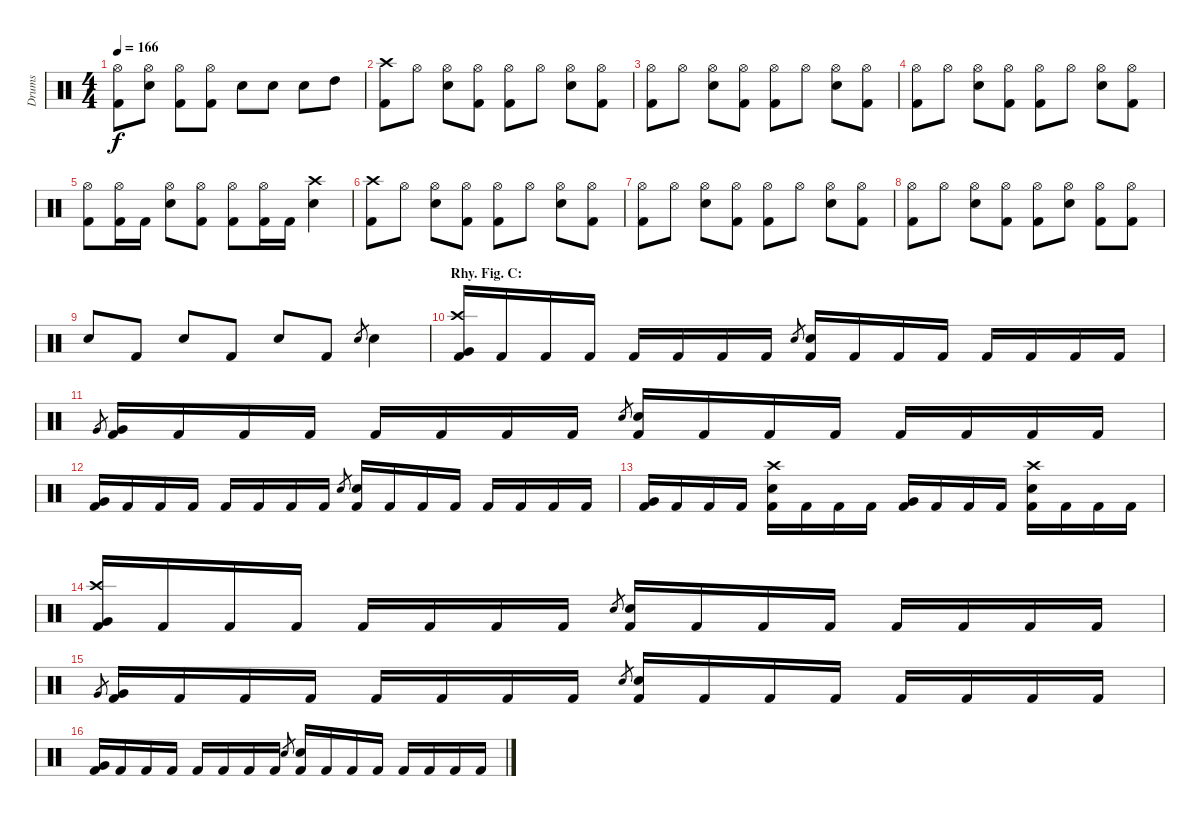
\track ("Drums" "Drums") {instrument percussion}
\staff {score}
\articulation defaults
\ts (4 4)
\tempo 166
\clef neutral
\ks c
("Hi-Hat (open)" "Kick (hit) 2").8{dy f} ("Hi-Hat (open)" "Electric Snare (hit)").8 ("Hi-Hat (open)" "Kick (hit) 2").8 ("Hi-Hat (open)" "Kick (hit) 2").8 "Electric Snare (hit)".8 "Electric Snare (hit)".8 "Electric Snare (hit)".8 "High Tom (hit)".8 |
("Crash high (hit)" "Kick (hit) 2").8 "Hi-Hat (open)".8 ("Hi-Hat (open)" "Electric Snare (hit)").8 ("Hi-Hat (open)" "Kick (hit) 2").8 ("Hi-Hat (open)" "Kick (hit) 2").8 "Hi-Hat (open)".8 ("Hi-Hat (open)" "Electric Snare (hit)").8 ("Hi-Hat (open)" "Kick (hit) 2").8 |
("Hi-Hat (open)" "Kick (hit) 2").8 "Hi-Hat (open)".8 ("Hi-Hat (open)" "Electric Snare (hit)").8 ("Hi-Hat (open)" "Kick (hit) 2").8 ("Hi-Hat (open)" "Kick (hit) 2").8 "Hi-Hat (open)".8 ("Hi-Hat (open)" "Electric Snare (hit)").8 ("Hi-Hat (open)" "Kick (hit) 2").8 |
("Hi-Hat (open)" "Kick (hit) 2").8 "Hi-Hat (open)".8 ("Hi-Hat (open)" "Electric Snare (hit)").8 ("Hi-Hat (open)" "Kick (hit) 2").8 ("Hi-Hat (open)" "Kick (hit) 2").8 "Hi-Hat (open)".8 ("Hi-Hat (open)" "Electric Snare (hit)").8 ("Hi-Hat (open)" "Kick (hit) 2").8 |
("Hi-Hat (open)" "Kick (hit) 2").8 ("Hi-Hat (open)" "Kick (hit) 2").16 "Kick (hit) 2".16 ("Hi-Hat (open)" "Electric Snare (hit)").8 ("Hi-Hat (open)" "Kick (hit) 2").8 ("Hi-Hat (open)" "Kick (hit) 2").8 ("Hi-Hat (open)" "Kick (hit) 2").16 "Kick (hit) 2".16 ("Crash high (hit)" "Electric Snare (hit)").4 |
("Crash high (hit)" "Kick (hit) 2").8 "Hi-Hat (open)".8 ("Hi-Hat (open)" "Electric Snare (hit)").8 ("Hi-Hat (open)" "Kick (hit) 2").8 ("Hi-Hat (open)" "Kick (hit) 2").8 "Hi-Hat (open)".8 ("Hi-Hat (open)" "Electric Snare (hit)").8 ("Hi-Hat (open)" "Kick (hit) 2").8 |
("Hi-Hat (open)" "Kick (hit) 2").8 "Hi-Hat (open)".8 ("Hi-Hat (open)" "Electric Snare (hit)").8 ("Hi-Hat (open)" "Kick (hit) 2").8 ("Hi-Hat (open)" "Kick (hit) 2").8 "Hi-Hat (open)".8 ("Hi-Hat (open)" "Electric Snare (hit)").8 ("Hi-Hat (open)" "Kick (hit) 2").8 |
("Hi-Hat (open)" "Kick (hit) 2").8 "Hi-Hat (open)".8 ("Hi-Hat (open)" "Electric Snare (hit)").8 ("Hi-Hat (open)" "Kick (hit) 2").8 ("Hi-Hat (open)" "Kick (hit) 2").8 ("Hi-Hat (open)" "Electric Snare (hit)").8 ("Hi-Hat (open)" "Kick (hit) 2").8 ("Hi-Hat (open)" "Kick (hit) 2").8 |
"Electric Snare (hit)".8 "Kick (hit) 2".8 "Electric Snare (hit)".8 "Kick (hit) 2".8 "Electric Snare (hit)".8 "Kick (hit) 2".8 "Electric Snare (hit)".8{gr} "Electric Snare (hit)".4 |
\section ("" "Rhy. Fig. C:")
("Crash high (hit)" "Very Low Tom (hit)" "Kick (hit) 2").16 "Kick (hit) 2".16 "Kick (hit) 2".16 "Kick (hit) 2".16 "Kick (hit) 2".16 "Kick (hit) 2".16 "Kick (hit) 2".16 "Kick (hit) 2".16 "Electric Snare (hit)".8{gr} ("Electric Snare (hit)" "Kick (hit) 2").16 "Kick (hit) 2".16 "Kick (hit) 2".16 "Kick (hit) 2".16 "Kick (hit) 2".16 "Kick (hit) 2".16 "Kick (hit) 2".16 "Kick (hit) 2".16 |
"Very Low Tom (hit)".8{gr} ("Very Low Tom (hit)" "Kick (hit) 2").16 "Kick (hit) 2".16 "Kick (hit) 2".16 "Kick (hit) 2".16 "Kick (hit) 2".16 "Kick (hit) 2".16 "Kick (hit) 2".16 "Kick (hit) 2".16 "Electric Snare (hit)".8{gr} ("Electric Snare (hit)" "Kick (hit) 2").16 "Kick (hit) 2".16 "Kick (hit) 2".16 "Kick (hit) 2".16 "Kick (hit) 2".16 "Kick (hit) 2".16 "Kick (hit) 2".16 "Kick (hit) 2".16 |
("Very Low Tom (hit)" "Kick (hit) 2").16 "Kick (hit) 2".16 "Kick (hit) 2".16 "Kick (hit) 2".16 "Kick (hit) 2".16 "Kick (hit) 2".16 "Kick (hit) 2".16 "Kick (hit) 2".16 "Electric Snare (hit)".8{gr} ("Electric Snare (hit)" "Kick (hit) 2").16 "Kick (hit) 2".16 "Kick (hit) 2".16 "Kick (hit) 2".16 "Kick (hit) 2".16 "Kick (hit) 2".16 "Kick (hit) 2".16 "Kick (hit) 2".16 |
("Very Low Tom (hit)" "Kick (hit) 2").16 "Kick (hit) 2".16 "Kick (hit) 2".16 "Kick (hit) 2".16 ("Crash high (hit)" "Electric Snare (hit)" "Kick (hit) 2").16 "Kick (hit) 2".16 "Kick (hit) 2".16 "Kick (hit) 2".16 ("Very Low Tom (hit)" "Kick (hit) 2").16 "Kick (hit) 2".16 "Kick (hit) 2".16 "Kick (hit) 2".16 ("Crash high (hit)" "Electric Snare (hit)" "Kick (hit) 2").16 "Kick (hit) 2".16 "Kick (hit) 2".16 "Kick (hit) 2".16 |
("Crash high (hit)" "Very Low Tom (hit)" "Kick (hit) 2").16 "Kick (hit) 2".16 "Kick (hit) 2".16 "Kick (hit) 2".16 "Kick (hit) 2".16 "Kick (hit) 2".16 "Kick (hit) 2".16 "Kick (hit) 2".16 "Electric Snare (hit)".8{gr} ("Electric Snare (hit)" "Kick (hit) 2").16 "Kick (hit) 2".16 "Kick (hit) 2".16 "Kick (hit) 2".16 "Kick (hit) 2".16 "Kick (hit) 2".16 "Kick (hit) 2".16 "Kick (hit) 2".16 |
"Very Low Tom (hit)".8{gr} ("Very Low Tom (hit)" "Kick (hit) 2").16 "Kick (hit) 2".16 "Kick (hit) 2".16 "Kick (hit) 2".16 "Kick (hit) 2".16 "Kick (hit) 2".16 "Kick (hit) 2".16 "Kick (hit) 2".16 "Electric Snare (hit)".8{gr} ("Electric Snare (hit)" "Kick (hit) 2").16 "Kick (hit) 2".16 "Kick (hit) 2".16 "Kick (hit) 2".16 "Kick (hit) 2".16 "Kick (hit) 2".16 "Kick (hit) 2".16 "Kick (hit) 2".16 |
("Very Low Tom (hit)" "Kick (hit) 2").16 "Kick (hit) 2".16 "Kick (hit) 2".16 "Kick (hit) 2".16 "Kick (hit) 2".16 "Kick (hit) 2".16 "Kick (hit) 2".16 "Kick (hit) 2".16 "Electric Snare (hit)".8{gr} ("Electric Snare (hit)" "Kick (hit) 2").16 "Kick (hit) 2".16 "Kick (hit) 2".16 "Kick (hit) 2".16 "Kick (hit) 2".16 "Kick (hit) 2".16 "Kick (hit) 2".16 "Kick (hit) 2".16
